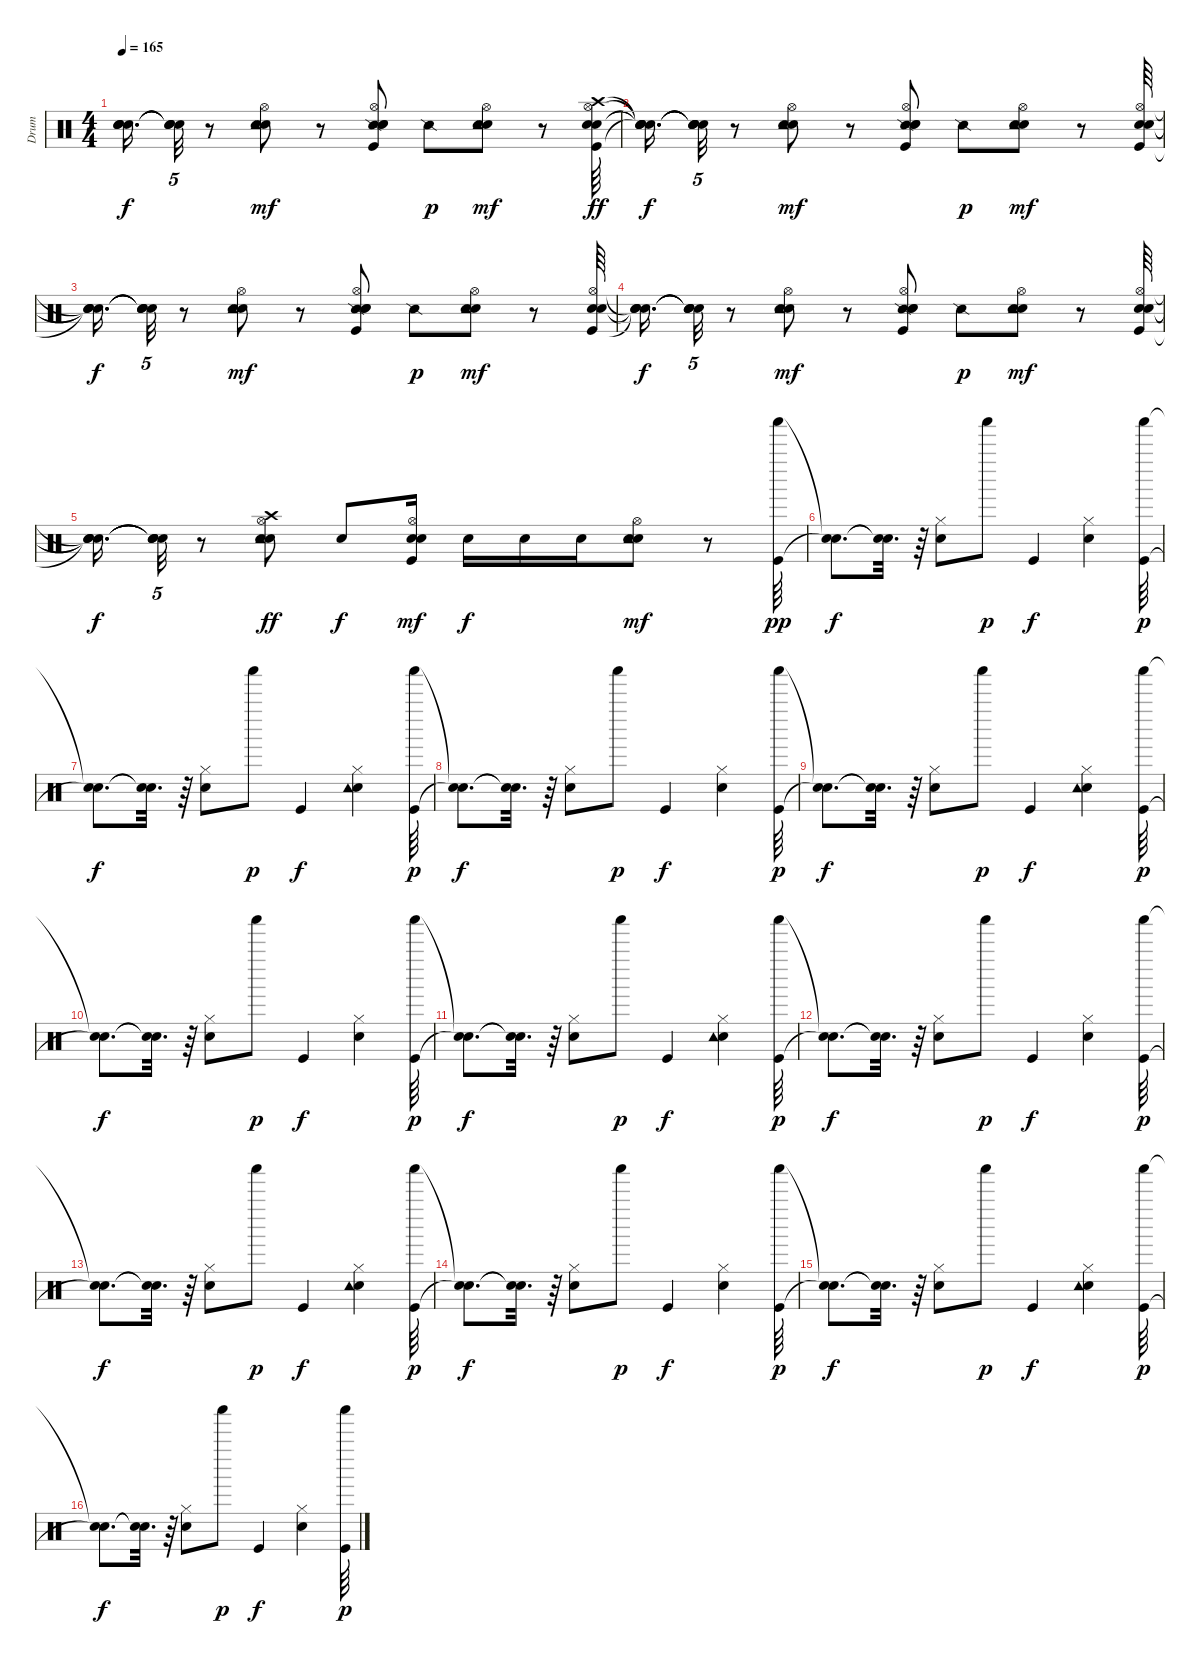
\track ("Drum" "Drum") {instrument percussion}
\staff {score}
\articulation defaults
\ts (4 4)
\tempo 165
\clef neutral
\ks c
("Snare (hit)"{t} "Snare (hit)"{t} "Snare (hit)"{t} "Snare (hit)"{t}).16{d dy f} ("Snare (hit)"{t} "Snare (hit)"{t} "Snare (hit)"{t} "Snare (hit)"{t}).32{tu (5 4)} r.8 ("Hand Clap (hit)" "Electric Snare (hit)" "Tambourine (hit)" "Hi-Hat (open)").8{dy mf} r.8 ("Snare (side stick) 2" "Kick (hit)" "Hand Clap (hit)" "Electric Snare (hit)" "Hi-Hat (open)").8 "Snare (side stick) 2".8{dy p} ("Hand Clap (hit)" "Tambourine (hit)" "Electric Snare (hit)" "Hi-Hat (open)").8{dy mf} r.8 ("Kick (hit)" "Hand Clap (hit)" "Electric Snare (hit)" "Hi-Hat (open)" "Crash high (hit)").64{dy ff} |
("Snare (hit)"{t} "Snare (hit)"{t} "Snare (hit)"{t} "Snare (hit)"{t} "Snare (hit)"{t}).16{d dy f} ("Snare (hit)"{t} "Snare (hit)"{t} "Snare (hit)"{t} "Snare (hit)"{t} "Snare (hit)"{t}).32{tu (5 4)} r.8 ("Hand Clap (hit)" "Electric Snare (hit)" "Tambourine (hit)" "Hi-Hat (open)").8{dy mf} r.8 ("Snare (side stick) 2" "Kick (hit)" "Hand Clap (hit)" "Electric Snare (hit)" "Hi-Hat (open)").8 "Snare (side stick) 2".8{dy p} ("Hand Clap (hit)" "Tambourine (hit)" "Electric Snare (hit)" "Hi-Hat (open)").8{dy mf} r.8 ("Kick (hit)" "Hand Clap (hit)" "Electric Snare (hit)" "Hi-Hat (open)").64 |
("Snare (hit)"{t} "Snare (hit)"{t} "Snare (hit)"{t} "Snare (hit)"{t}).16{d dy f} ("Snare (hit)"{t} "Snare (hit)"{t} "Snare (hit)"{t} "Snare (hit)"{t}).32{tu (5 4)} r.8 ("Hand Clap (hit)" "Electric Snare (hit)" "Tambourine (hit)" "Hi-Hat (open)").8{dy mf} r.8 ("Snare (side stick) 2" "Kick (hit)" "Hand Clap (hit)" "Electric Snare (hit)" "Hi-Hat (open)").8 "Snare (side stick) 2".8{dy p} ("Hand Clap (hit)" "Tambourine (hit)" "Electric Snare (hit)" "Hi-Hat (open)").8{dy mf} r.8 ("Kick (hit)" "Hand Clap (hit)" "Electric Snare (hit)" "Hi-Hat (open)").64 |
("Snare (hit)"{t} "Snare (hit)"{t} "Snare (hit)"{t} "Snare (hit)"{t}).16{d dy f} ("Snare (hit)"{t} "Snare (hit)"{t} "Snare (hit)"{t} "Snare (hit)"{t}).32{tu (5 4)} r.8 ("Hand Clap (hit)" "Electric Snare (hit)" "Tambourine (hit)" "Hi-Hat (open)").8{dy mf} r.8 ("Snare (side stick) 2" "Kick (hit)" "Hand Clap (hit)" "Electric Snare (hit)" "Hi-Hat (open)").8 "Snare (side stick) 2".8{dy p} ("Hand Clap (hit)" "Tambourine (hit)" "Electric Snare (hit)" "Hi-Hat (open)").8{dy mf} r.8 ("Kick (hit)" "Hand Clap (hit)" "Electric Snare (hit)" "Hi-Hat (open)").64 |
("Snare (hit)"{t} "Snare (hit)"{t} "Snare (hit)"{t} "Snare (hit)"{t}).16{d dy f} ("Snare (hit)"{t} "Snare (hit)"{t} "Snare (hit)"{t} "Snare (hit)"{t}).32{tu (5 4)} r.8 ("Hand Clap (hit)" "Electric Snare (hit)" "Tambourine (hit)" "Hi-Hat (open)" "Crash high (hit)").8{dy ff} "Electric Snare (hit)".8{dy f} ("Kick (hit)" "Hand Clap (hit)" "Electric Snare (hit)" "Hi-Hat (open)").16{dy mf} "Electric Snare (hit)".16{dy f} "Electric Snare (hit)".16 "Electric Snare (hit)".16 ("Hand Clap (hit)" "Tambourine (hit)" "Electric Snare (hit)" "Hi-Hat (open)").8{dy mf} r.8 ("Kick (hit)" "Shaker (hit)").64{dy pp} |
("Snare (hit)"{t} "Snare (hit)"{t}).8{d dy f} ("Snare (hit)"{t} "Snare (hit)"{t}).32{d} r.64 ("Electric Snare (hit)" "Hi-Hat (closed)").8 "Shaker (hit)".8{dy p} "Kick (hit)".4{dy f} ("Electric Snare (hit)" "Hi-Hat (closed)").4 ("Kick (hit)" "Shaker (hit)").64{dy p} |
("Snare (hit)"{t} "Snare (hit)"{t}).8{d dy f} ("Snare (hit)"{t} "Snare (hit)"{t}).32{d} r.64 ("Electric Snare (hit)" "Hi-Hat (closed)").8 "Shaker (hit)".8{dy p} "Kick (hit)".4{dy f} ("Electric Snare (hit)" "Hi-Hat (closed)" "Tambourine (hit)").4 ("Kick (hit)" "Shaker (hit)").64{dy p} |
("Snare (hit)"{t} "Snare (hit)"{t}).8{d dy f} ("Snare (hit)"{t} "Snare (hit)"{t}).32{d} r.64 ("Electric Snare (hit)" "Hi-Hat (closed)").8 "Shaker (hit)".8{dy p} "Kick (hit)".4{dy f} ("Electric Snare (hit)" "Hi-Hat (closed)").4 ("Kick (hit)" "Shaker (hit)").64{dy p} |
("Snare (hit)"{t} "Snare (hit)"{t}).8{d dy f} ("Snare (hit)"{t} "Snare (hit)"{t}).32{d} r.64 ("Electric Snare (hit)" "Hi-Hat (closed)").8 "Shaker (hit)".8{dy p} "Kick (hit)".4{dy f} ("Electric Snare (hit)" "Hi-Hat (closed)" "Tambourine (hit)").4 ("Kick (hit)" "Shaker (hit)").64{dy p} |
("Snare (hit)"{t} "Snare (hit)"{t}).8{d dy f} ("Snare (hit)"{t} "Snare (hit)"{t}).32{d} r.64 ("Electric Snare (hit)" "Hi-Hat (closed)").8 "Shaker (hit)".8{dy p} "Kick (hit)".4{dy f} ("Electric Snare (hit)" "Hi-Hat (closed)").4 ("Kick (hit)" "Shaker (hit)").64{dy p} |
("Snare (hit)"{t} "Snare (hit)"{t}).8{d dy f} ("Snare (hit)"{t} "Snare (hit)"{t}).32{d} r.64 ("Electric Snare (hit)" "Hi-Hat (closed)").8 "Shaker (hit)".8{dy p} "Kick (hit)".4{dy f} ("Electric Snare (hit)" "Hi-Hat (closed)" "Tambourine (hit)").4 ("Kick (hit)" "Shaker (hit)").64{dy p} |
("Snare (hit)"{t} "Snare (hit)"{t}).8{d dy f} ("Snare (hit)"{t} "Snare (hit)"{t}).32{d} r.64 ("Electric Snare (hit)" "Hi-Hat (closed)").8 "Shaker (hit)".8{dy p} "Kick (hit)".4{dy f} ("Electric Snare (hit)" "Hi-Hat (closed)").4 ("Kick (hit)" "Shaker (hit)").64{dy p} |
("Snare (hit)"{t} "Snare (hit)"{t}).8{d dy f} ("Snare (hit)"{t} "Snare (hit)"{t}).32{d} r.64 ("Electric Snare (hit)" "Hi-Hat (closed)").8 "Shaker (hit)".8{dy p} "Kick (hit)".4{dy f} ("Electric Snare (hit)" "Hi-Hat (closed)" "Tambourine (hit)").4 ("Kick (hit)" "Shaker (hit)").64{dy p} |
("Snare (hit)"{t} "Snare (hit)"{t}).8{d dy f} ("Snare (hit)"{t} "Snare (hit)"{t}).32{d} r.64 ("Electric Snare (hit)" "Hi-Hat (closed)").8 "Shaker (hit)".8{dy p} "Kick (hit)".4{dy f} ("Electric Snare (hit)" "Hi-Hat (closed)").4 ("Kick (hit)" "Shaker (hit)").64{dy p} |
("Snare (hit)"{t} "Snare (hit)"{t}).8{d dy f} ("Snare (hit)"{t} "Snare (hit)"{t}).32{d} r.64 ("Electric Snare (hit)" "Hi-Hat (closed)").8 "Shaker (hit)".8{dy p} "Kick (hit)".4{dy f} ("Electric Snare (hit)" "Hi-Hat (closed)" "Tambourine (hit)").4 ("Kick (hit)" "Shaker (hit)").64{dy p} |
("Snare (hit)"{t} "Snare (hit)"{t}).8{d dy f} ("Snare (hit)"{t} "Snare (hit)"{t}).32{d} r.64 ("Electric Snare (hit)" "Hi-Hat (closed)").8 "Shaker (hit)".8{dy p} "Kick (hit)".4{dy f} ("Electric Snare (hit)" "Hi-Hat (closed)").4 ("Kick (hit)" "Shaker (hit)").64{dy p}
